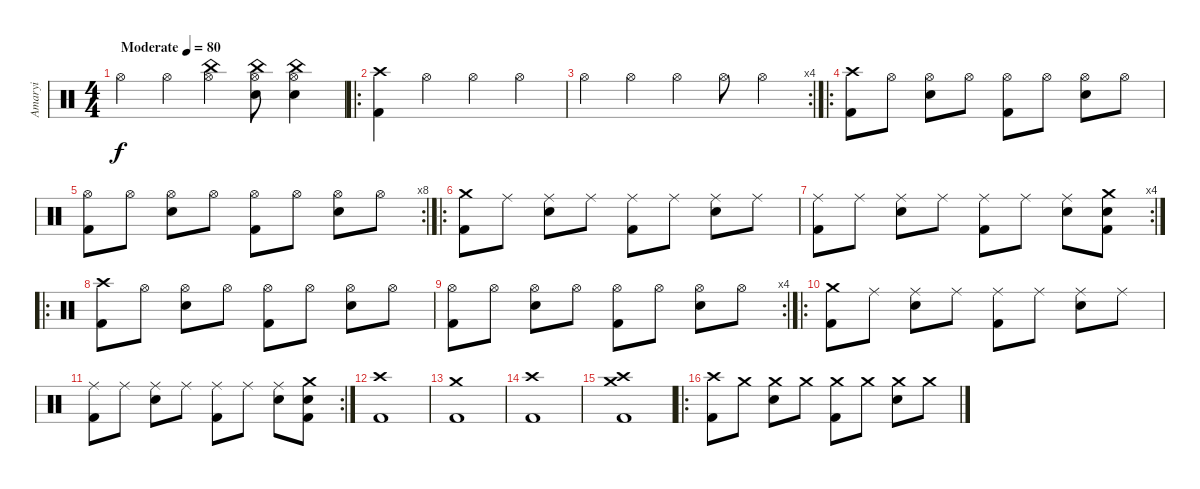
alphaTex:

\track ("Amaryi" "Amaryi") {instrument percussion}
\staff {score}
\articulation defaults
\ts (4 4)
\tempo (80 "Moderate")
\clef neutral
\ks c "Hi-Hat (open)".4{dy f} "Hi-Hat (open)".4
("China (hit)" "Hi-Hat (open)").4 ("Electric Snare (hit)" "China (hit)" "Hi-Hat (open)").8 ("Electric Snare (hit)" "China (hit)" "Hi-Hat (open)").4 |
\ro
("Crash high (hit)" "Kick (hit) 2").4 "Hi-Hat (open)".4 "Hi-Hat (open)".4 "Hi-Hat (open)".4 |
\rc 4 "Hi-Hat (open)".4 "Hi-Hat (open)".4 "Hi-Hat (open)".4 "Hi-Hat (open)".8 "Hi-Hat (open)".4
|
\ro
("Crash high (hit)" "Kick (hit) 2").8 "Hi-Hat (open)".8 ("Hi-Hat (open)" "Electric Snare (hit)").8 "Hi-Hat (open)".8 ("Hi-Hat (open)" "Kick (hit) 2").8 "Hi-Hat (open)".8 ("Hi-Hat (open)" "Electric Snare (hit)").8 "Hi-Hat (open)".8 |
\rc 8
("Hi-Hat (open)" "Kick (hit) 2").8 "Hi-Hat (open)".8 ("Hi-Hat (open)" "Electric Snare (hit)").8 "Hi-Hat (open)".8 ("Hi-Hat (open)" "Kick (hit) 2").8 "Hi-Hat (open)".8 ("Hi-Hat (open)" "Electric Snare (hit)").8 "Hi-Hat (open)".8 |
\ro
("Crash medium (hit)" "Kick (hit) 2").8 "Ride (middle)".8 ("Ride (middle)" "Electric Snare (hit)").8 "Ride (middle)".8 ("Ride (middle)" "Kick (hit) 2").8 "Ride (middle)".8 ("Ride (middle)" "Electric Snare (hit)").8 "Ride (middle)".8 |
\rc 4
("Ride (middle)" "Kick (hit) 2").8 "Ride (middle)".8 ("Ride (middle)" "Electric Snare (hit)").8 "Ride (middle)".8 ("Ride (middle)" "Kick (hit) 2").8 "Ride (middle)".8 ("Ride (middle)" "Electric Snare (hit)").8 ("Crash medium (hit)" "Kick (hit) 2" "Electric Snare (hit)").8 |
\ro
("Crash high (hit)" "Kick (hit) 2").8 "Hi-Hat (open)".8 ("Hi-Hat (open)" "Electric Snare (hit)").8 "Hi-Hat (open)".8 ("Hi-Hat (open)" "Kick (hit) 2").8 "Hi-Hat (open)".8 ("Hi-Hat (open)" "Electric Snare (hit)").8 "Hi-Hat (open)".8 |
\rc 4
("Hi-Hat (open)" "Kick (hit) 2").8 "Hi-Hat (open)".8 ("Hi-Hat (open)" "Electric Snare (hit)").8 "Hi-Hat (open)".8 ("Hi-Hat (open)" "Kick (hit) 2").8 "Hi-Hat (open)".8 ("Hi-Hat (open)" "Electric Snare (hit)").8 "Hi-Hat (open)".8 |
\ro
("Crash medium (hit)" "Kick (hit) 2").8 "Ride (middle)".8 ("Ride (middle)" "Electric Snare (hit)").8 "Ride (middle)".8 ("Ride (middle)" "Kick (hit) 2").8 "Ride (middle)".8 ("Ride (middle)" "Electric Snare (hit)").8 "Ride (middle)".8 |
\rc 2
("Ride (middle)" "Kick (hit) 2").8 "Ride (middle)".8 ("Ride (middle)" "Electric Snare (hit)").8 "Ride (middle)".8 ("Ride (middle)" "Kick (hit) 2").8 "Ride (middle)".8 ("Ride (middle)" "Electric Snare (hit)").8 ("Crash medium (hit)" "Kick (hit) 2" "Electric Snare (hit)").8 |
("Crash high (hit)" "Kick (hit) 2").1 |
("Crash medium (hit)" "Kick (hit) 2").1 |
("Crash high (hit)" "Kick (hit) 2").1 |
("Crash high (hit)" "Crash medium (hit)" "Kick (hit) 2").1 |
\ro
("Crash high (hit)" "Kick (hit) 2").8 "Crash medium (hit)".8 ("Crash medium (hit)" "Electric Snare (hit)").8 "Crash medium (hit)".8 ("Crash medium (hit)" "Kick (hit) 2").8 "Crash medium (hit)".8 ("Crash medium (hit)" "Electric Snare (hit)").8 "Crash medium (hit)".8
